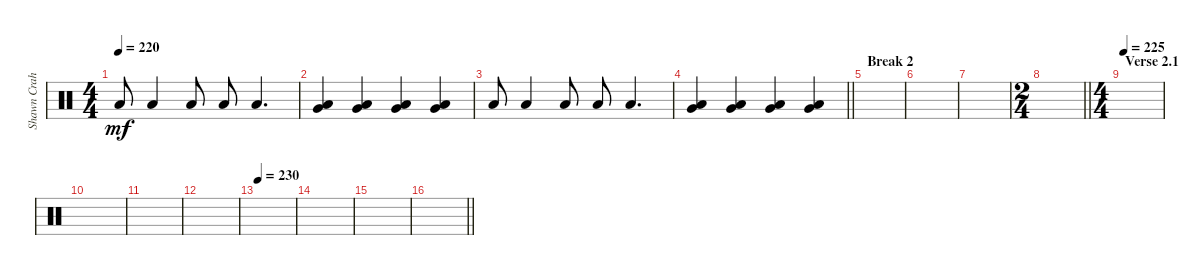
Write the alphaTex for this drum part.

\track ("Shawn Crahan" "Shawn Crah") {instrument percussion}
\staff {score}
\articulation defaults
\ts (4 4)
\tempo 220
\clef neutral
\ks c "Low Floor Tom (hit)".8{dy mf} "Low Floor Tom (hit)".4 "Low Floor Tom (hit)".8 "Low Floor Tom (hit)".8 "Low Floor Tom (hit)".4{d}
|
("Very Low Tom (hit)" "Low Floor Tom (hit)").4 ("Very Low Tom (hit)" "Low Floor Tom (hit)").4 ("Very Low Tom (hit)" "Low Floor Tom (hit)").4 ("Very Low Tom (hit)" "Low Floor Tom (hit)").4 |
"Low Floor Tom (hit)".8 "Low Floor Tom (hit)".4 "Low Floor Tom (hit)".8 "Low Floor Tom (hit)".8 "Low Floor Tom (hit)".4{d} |
\barLineRight lightlight
("Very Low Tom (hit)" "Low Floor Tom (hit)").4 ("Very Low Tom (hit)" "Low Floor Tom (hit)").4 ("Very Low Tom (hit)" "Low Floor Tom (hit)").4 ("Very Low Tom (hit)" "Low Floor Tom (hit)").4 |
\section ("" "Break 2")
|
|
|
\ts (2 4)
\barLineRight lightlight
|
\ts (4 4)
\section ("" "Verse 2.1")
\tempo 225
|
|
|
|
\tempo 230
|
|
|
\barLineRight lightlight
